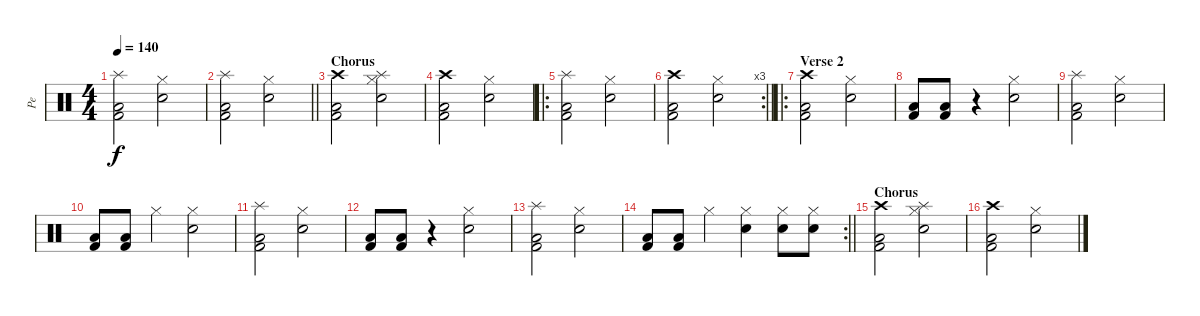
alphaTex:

\track ("Pe" "Pe") {instrument percussion}
\staff {score}
\articulation defaults
\ts (4 4)
\tempo 140
\clef neutral
\ks c
("Splash (hit)" "Low Floor Tom (hit)" "Kick (hit) 2").2{dy f} ("Snare (hit) 2" "Hi-Hat (closed)").2 |
\barLineRight lightlight
("Splash (hit)" "Low Floor Tom (hit)" "Kick (hit) 2").2 ("Snare (hit) 2" "Hi-Hat (closed)").2 |
\section ("" "Chorus")
("Crash high (hit)" "Low Floor Tom (hit)" "Kick (hit) 2").2 ("Splash (hit)" "Snare (hit) 2" "Hi-Hat (closed)").2 |
("Crash high (hit)" "Low Floor Tom (hit)" "Kick (hit) 2").2 ("Snare (hit) 2" "Hi-Hat (closed)").2 |
\ro
("Splash (hit)" "Low Floor Tom (hit)" "Kick (hit) 2").2 ("Snare (hit) 2" "Hi-Hat (closed)").2 |
\rc 3
\barLineRight lightlight
("Crash high (hit)" "Low Floor Tom (hit)" "Kick (hit) 2").2 ("Snare (hit) 2" "Hi-Hat (closed)").2 |
\ro
\section ("" "Verse 2")
("Crash high (hit)" "Low Floor Tom (hit)" "Kick (hit) 2").2 ("Snare (hit) 2" "Hi-Hat (closed)").2 |
("Low Floor Tom (hit)" "Kick (hit) 2").8 ("Low Floor Tom (hit)" "Kick (hit) 2").8 r.4 ("Snare (hit) 2" "Hi-Hat (closed)").2 |
("Splash (hit)" "Low Floor Tom (hit)" "Kick (hit) 2").2 ("Snare (hit) 2" "Hi-Hat (closed)").2 |
("Low Floor Tom (hit)" "Kick (hit) 2").8 ("Low Floor Tom (hit)" "Kick (hit) 2").8 "Hi-Hat (closed)".4 ("Snare (hit) 2" "Hi-Hat (closed)").2 |
("Splash (hit)" "Low Floor Tom (hit)" "Kick (hit) 2").2 ("Snare (hit) 2" "Hi-Hat (closed)").2 |
("Low Floor Tom (hit)" "Kick (hit) 2").8 ("Low Floor Tom (hit)" "Kick (hit) 2").8 r.4 ("Snare (hit) 2" "Hi-Hat (closed)").2 |
("Splash (hit)" "Low Floor Tom (hit)" "Kick (hit) 2").2 ("Snare (hit) 2" "Hi-Hat (closed)").2 |
\rc 2
\barLineRight lightlight
("Low Floor Tom (hit)" "Kick (hit) 2").8 ("Low Floor Tom (hit)" "Kick (hit) 2").8 "Hi-Hat (closed)".4 ("Snare (hit) 2" "Hi-Hat (closed)").4 ("Snare (hit) 2" "Hi-Hat (closed)").8 ("Snare (hit) 2" "Hi-Hat (closed)").8 |
\section ("" "Chorus")
("Crash high (hit)" "Low Floor Tom (hit)" "Kick (hit) 2").2 ("Splash (hit)" "Snare (hit) 2" "Hi-Hat (closed)").2 |
("Crash high (hit)" "Low Floor Tom (hit)" "Kick (hit) 2").2 ("Snare (hit) 2" "Hi-Hat (closed)").2
